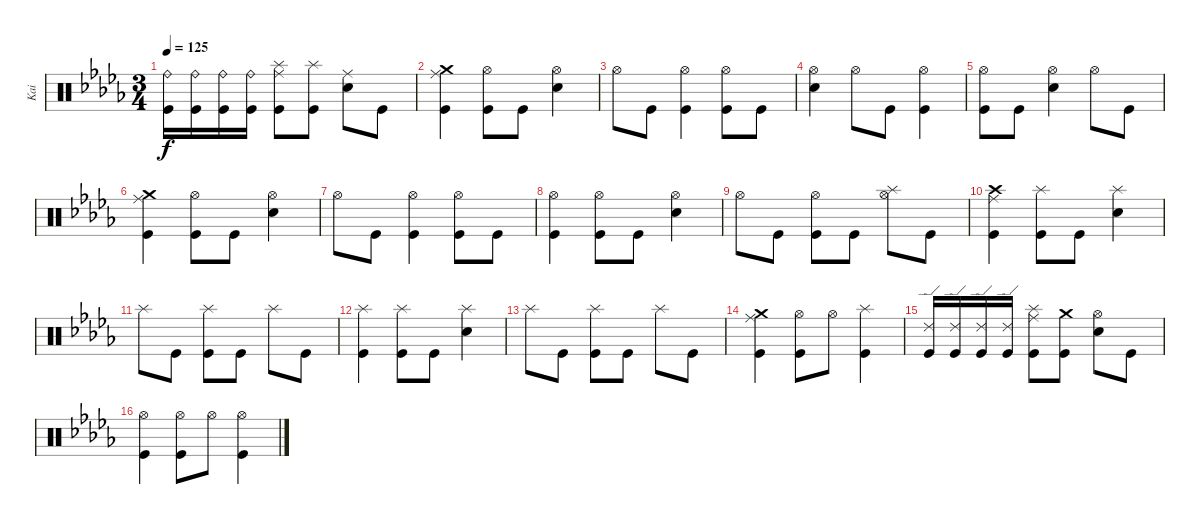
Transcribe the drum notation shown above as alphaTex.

\track ("Kai" "Kai") {instrument percussion}
\staff {score}
\articulation defaults
\ts (3 4)
\tempo 125
\clef neutral
\ks bbminor
("Ride (bell)" "Kick (hit)").16{dy f} ("Ride (bell)" "Kick (hit)").16 ("Ride (bell)" "Kick (hit)").16 ("Ride (bell)" "Kick (hit)").16 ("Kick (hit)" "Ride (middle)" "Splash (hit)").8 ("Kick (hit)" "Splash (hit)").8 ("Snare (hit) 2" "Ride (middle)").8 "Kick (hit)".8 |
("Crash medium (hit)" "Ride (middle)" "Kick (hit)").4 ("Kick (hit)" "Hi-Hat (open)").8 "Kick (hit)".8 ("Snare (hit) 2" "Hi-Hat (open)").4 |
"Hi-Hat (open)".8 "Kick (hit)".8 ("Kick (hit)" "Hi-Hat (open)").4 ("Kick (hit)" "Hi-Hat (open)").8 "Kick (hit)".8 |
("Snare (hit) 2" "Hi-Hat (open)").4 "Hi-Hat (open)".8 "Kick (hit)".8 ("Kick (hit)" "Hi-Hat (open)").4 |
("Kick (hit)" "Hi-Hat (open)").8 "Kick (hit)".8 ("Snare (hit) 2" "Hi-Hat (open)").4 "Hi-Hat (open)".8 "Kick (hit)".8 |
("Crash medium (hit)" "Kick (hit)" "Ride (middle)").4 ("Kick (hit)" "Hi-Hat (open)").8 "Kick (hit)".8 ("Hi-Hat (open)" "Snare (hit) 2").4 |
"Hi-Hat (open)".8 "Kick (hit)".8 ("Kick (hit)" "Hi-Hat (open)").4 ("Kick (hit)" "Hi-Hat (open)").8 "Kick (hit)".8 |
("Kick (hit)" "Hi-Hat (open)").4 ("Kick (hit)" "Hi-Hat (open)").8 "Kick (hit)".8 ("Snare (hit) 2" "Hi-Hat (open)").4 |
"Hi-Hat (open)".8 "Kick (hit)".8 ("Kick (hit)" "Hi-Hat (open)").8 "Kick (hit)".8 ("Splash (hit)" "Hi-Hat (open)").8 "Kick (hit)".8 |
("Kick (hit)" "Ride (middle)" "Crash high (hit)").4 ("Kick (hit)" "Splash (hit)").8 "Kick (hit)".8 ("Snare (hit) 2" "Splash (hit)").4 |
"Splash (hit)".8 "Kick (hit)".8 ("Kick (hit)" "Splash (hit)").8 "Kick (hit)".8 "Splash (hit)".8 "Kick (hit)".8 |
("Kick (hit)" "Splash (hit)").4 ("Kick (hit)" "Splash (hit)").8 "Kick (hit)".8 ("Snare (hit) 2" "Splash (hit)").4 |
"Splash (hit)".8 "Kick (hit)".8 ("Kick (hit)" "Splash (hit)").8 "Kick (hit)".8 "Splash (hit)".8 "Kick (hit)".8 |
("Crash medium (hit)" "Kick (hit)" "Ride (middle)").4 ("Hi-Hat (open)" "Kick (hit)").8 "Hi-Hat (open)".8 ("Splash (hit)" "Kick (hit)").4 |
("Ride (edge) 2" "Kick (hit)").16 ("Ride (edge) 2" "Kick (hit)").16 ("Ride (edge) 2" "Kick (hit)").16 ("Ride (edge) 2" "Kick (hit)").16 ("Splash (hit)" "Ride (middle)" "Kick (hit)").8 ("Crash medium (hit)" "Kick (hit)").8 ("Snare (hit) 2" "Hi-Hat (open)").8 "Kick (hit)".8 |
("Kick (hit)" "Hi-Hat (open)").4 ("Hi-Hat (open)" "Kick (hit)").8 "Hi-Hat (open)".8 ("Hi-Hat (open)" "Kick (hit)").4
